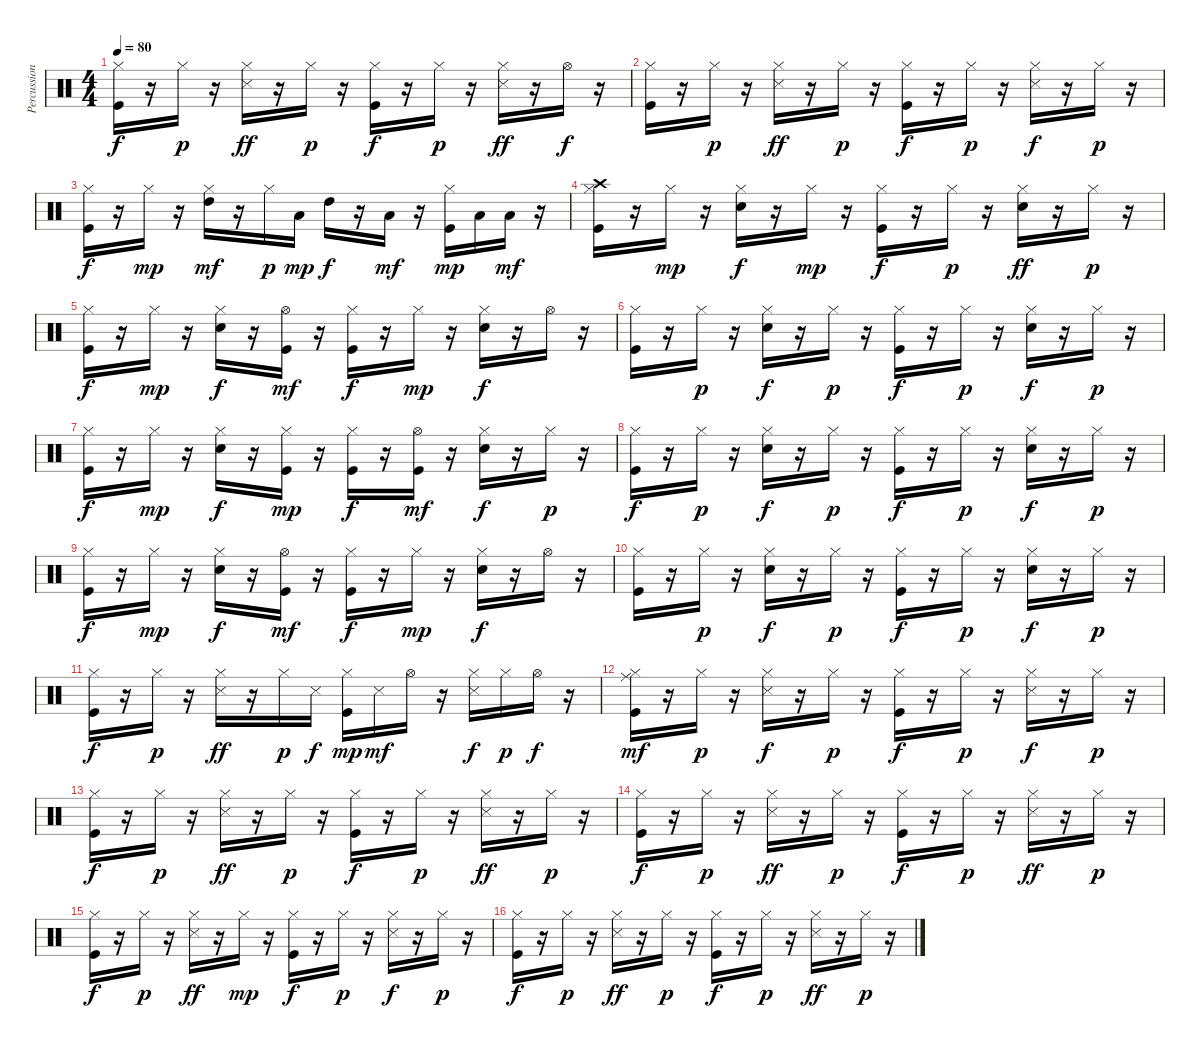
\track ("Percussion" "Percussion") {instrument percussion}
\staff {score}
\articulation defaults
\ts (4 4)
\tempo 80
\clef neutral
\ks c
("Kick (hit)" "Hi-Hat (closed)").16{dy f} r.16 "Hi-Hat (closed)".16{dy p} r.16 ("Hi-Hat (closed)" "Snare (side stick) 3").16{dy ff} r.16 "Hi-Hat (closed)".16{dy p} r.16 ("Kick (hit)" "Hi-Hat (closed)").16{dy f} r.16 "Hi-Hat (closed)".16{dy p} r.16 ("Hi-Hat (closed)" "Snare (side stick) 3").16{dy ff} r.16 "Hi-Hat (open)".16{dy f} r.16 |
("Kick (hit)" "Hi-Hat (closed)").16 r.16 "Hi-Hat (closed)".16{dy p} r.16 ("Hi-Hat (closed)" "Snare (side stick) 3").16{dy ff} r.16 "Hi-Hat (closed)".16{dy p} r.16 ("Kick (hit)" "Hi-Hat (closed)").16{dy f} r.16 "Hi-Hat (closed)".16{dy p} r.16 ("Hi-Hat (closed)" "Snare (side stick) 3").16{dy f} r.16 "Hi-Hat (closed)".16{dy p} r.16 |
("Kick (hit)" "Hi-Hat (closed)").16{dy f} r.16 "Hi-Hat (closed)".16{dy mp} r.16 ("Hi-Hat (closed)" "High Tom (hit)").16{dy mf} r.16 "Hi-Hat (closed)".16{dy p} "Low Tom (hit)".16{dy mp} "High Tom (hit)".16{dy f} r.16 "Low Tom (hit)".16{dy mf} r.16 ("Kick (hit)" "Hi-Hat (closed)").16{dy mp} "Low Tom (hit)".16 "Low Floor Tom (hit)".16{dy mf} r.16 |
("Kick (hit)" "Hi-Hat (closed)" "Crash high (hit)").16 r.16 "Hi-Hat (closed)".16{dy mp} r.16 ("Snare (hit) 2" "Hi-Hat (closed)").16{dy f} r.16 "Hi-Hat (closed)".16{dy mp} r.16 ("Kick (hit)" "Hi-Hat (closed)").16{dy f} r.16 "Hi-Hat (closed)".16{dy p} r.16 ("Snare (hit) 2" "Hi-Hat (closed)").16{dy ff} r.16 "Hi-Hat (closed)".16{dy p} r.16 |
("Kick (hit)" "Hi-Hat (closed)").16{dy f} r.16 "Hi-Hat (closed)".16{dy mp} r.16 ("Snare (hit) 2" "Hi-Hat (closed)").16{dy f} r.16 ("Kick (hit)" "Hi-Hat (open)").16{dy mf} r.16 ("Kick (hit)" "Hi-Hat (closed)").16{dy f} r.16 "Hi-Hat (closed)".16{dy mp} r.16 ("Snare (hit) 2" "Hi-Hat (closed)").16{dy f} r.16 "Hi-Hat (open)".16 r.16 |
("Kick (hit)" "Hi-Hat (closed)").16 r.16 "Hi-Hat (closed)".16{dy p} r.16 ("Snare (hit) 2" "Hi-Hat (closed)").16{dy f} r.16 "Hi-Hat (closed)".16{dy p} r.16 ("Kick (hit)" "Hi-Hat (closed)").16{dy f} r.16 "Hi-Hat (closed)".16{dy p} r.16 ("Snare (hit) 2" "Hi-Hat (closed)").16{dy f} r.16 "Hi-Hat (closed)".16{dy p} r.16 |
("Kick (hit)" "Hi-Hat (closed)").16{dy f} r.16 "Hi-Hat (closed)".16{dy mp} r.16 ("Snare (hit) 2" "Hi-Hat (closed)").16{dy f} r.16 ("Kick (hit)" "Hi-Hat (closed)").16{dy mp} r.16 ("Kick (hit)" "Hi-Hat (closed)").16{dy f} r.16 ("Kick (hit)" "Hi-Hat (open)").16{dy mf} r.16 ("Snare (hit) 2" "Hi-Hat (closed)").16{dy f} r.16 "Hi-Hat (closed)".16{dy p} r.16 |
("Kick (hit)" "Hi-Hat (closed)").16{dy f} r.16 "Hi-Hat (closed)".16{dy p} r.16 ("Snare (hit) 2" "Hi-Hat (closed)").16{dy f} r.16 "Hi-Hat (closed)".16{dy p} r.16 ("Kick (hit)" "Hi-Hat (closed)").16{dy f} r.16 "Hi-Hat (closed)".16{dy p} r.16 ("Snare (hit) 2" "Hi-Hat (closed)").16{dy f} r.16 "Hi-Hat (closed)".16{dy p} r.16 |
("Kick (hit)" "Hi-Hat (closed)").16{dy f} r.16 "Hi-Hat (closed)".16{dy mp} r.16 ("Snare (hit) 2" "Hi-Hat (closed)").16{dy f} r.16 ("Kick (hit)" "Hi-Hat (open)").16{dy mf} r.16 ("Kick (hit)" "Hi-Hat (closed)").16{dy f} r.16 "Hi-Hat (closed)".16{dy mp} r.16 ("Snare (hit) 2" "Hi-Hat (closed)").16{dy f} r.16 "Hi-Hat (open)".16 r.16 |
("Kick (hit)" "Hi-Hat (closed)").16 r.16 "Hi-Hat (closed)".16{dy p} r.16 ("Snare (hit) 2" "Hi-Hat (closed)").16{dy f} r.16 "Hi-Hat (closed)".16{dy p} r.16 ("Kick (hit)" "Hi-Hat (closed)").16{dy f} r.16 "Hi-Hat (closed)".16{dy p} r.16 ("Snare (hit) 2" "Hi-Hat (closed)").16{dy f} r.16 "Hi-Hat (closed)".16{dy p} r.16 |
("Kick (hit)" "Hi-Hat (closed)").16{dy f} r.16 "Hi-Hat (closed)".16{dy p} r.16 ("Hi-Hat (closed)" "Snare (side stick) 3").16{dy ff} r.16 "Hi-Hat (closed)".16{dy p} "Snare (side stick) 3".16{dy f} ("Kick (hit)" "Hi-Hat (closed)").16{dy mp} "Snare (side stick) 3".16{dy mf} "Hi-Hat (open)".16 r.16 ("Hi-Hat (closed)" "Snare (side stick) 3").16{dy f} "Hi-Hat (closed)".16{dy p} "Hi-Hat (open)".16{dy f} r.16 |
("Kick (hit)" "Hi-Hat (closed)" "Ride (middle)").16{dy mf} r.16 "Hi-Hat (closed)".16{dy p} r.16 ("Hi-Hat (closed)" "Snare (side stick) 3").16{dy f} r.16 "Hi-Hat (closed)".16{dy p} r.16 ("Kick (hit)" "Hi-Hat (closed)").16{dy f} r.16 "Hi-Hat (closed)".16{dy p} r.16 ("Hi-Hat (closed)" "Snare (side stick) 3").16{dy f} r.16 "Hi-Hat (closed)".16{dy p} r.16 |
("Kick (hit)" "Hi-Hat (closed)").16{dy f} r.16 "Hi-Hat (closed)".16{dy p} r.16 ("Hi-Hat (closed)" "Snare (side stick) 3").16{dy ff} r.16 "Hi-Hat (closed)".16{dy p} r.16 ("Kick (hit)" "Hi-Hat (closed)").16{dy f} r.16 "Hi-Hat (closed)".16{dy p} r.16 ("Hi-Hat (closed)" "Snare (side stick) 3").16{dy ff} r.16 "Hi-Hat (closed)".16{dy p} r.16 |
("Kick (hit)" "Hi-Hat (closed)").16{dy f} r.16 "Hi-Hat (closed)".16{dy p} r.16 ("Hi-Hat (closed)" "Snare (side stick) 3").16{dy ff} r.16 "Hi-Hat (closed)".16{dy p} r.16 ("Kick (hit)" "Hi-Hat (closed)").16{dy f} r.16 "Hi-Hat (closed)".16{dy p} r.16 ("Hi-Hat (closed)" "Snare (side stick) 3").16{dy ff} r.16 "Hi-Hat (closed)".16{dy p} r.16 |
("Kick (hit)" "Hi-Hat (closed)").16{dy f} r.16 "Hi-Hat (closed)".16{dy p} r.16 ("Hi-Hat (closed)" "Snare (side stick) 3").16{dy ff} r.16 "Hi-Hat (closed)".16{dy mp} r.16 ("Kick (hit)" "Hi-Hat (closed)").16{dy f} r.16 "Hi-Hat (closed)".16{dy p} r.16 ("Hi-Hat (closed)" "Snare (side stick) 3").16{dy f} r.16 "Hi-Hat (closed)".16{dy p} r.16 |
("Kick (hit)" "Hi-Hat (closed)").16{dy f} r.16 "Hi-Hat (closed)".16{dy p} r.16 ("Hi-Hat (closed)" "Snare (side stick) 3").16{dy ff} r.16 "Hi-Hat (closed)".16{dy p} r.16 ("Kick (hit)" "Hi-Hat (closed)").16{dy f} r.16 "Hi-Hat (closed)".16{dy p} r.16 ("Hi-Hat (closed)" "Snare (side stick) 3").16{dy ff} r.16 "Hi-Hat (closed)".16{dy p} r.16
